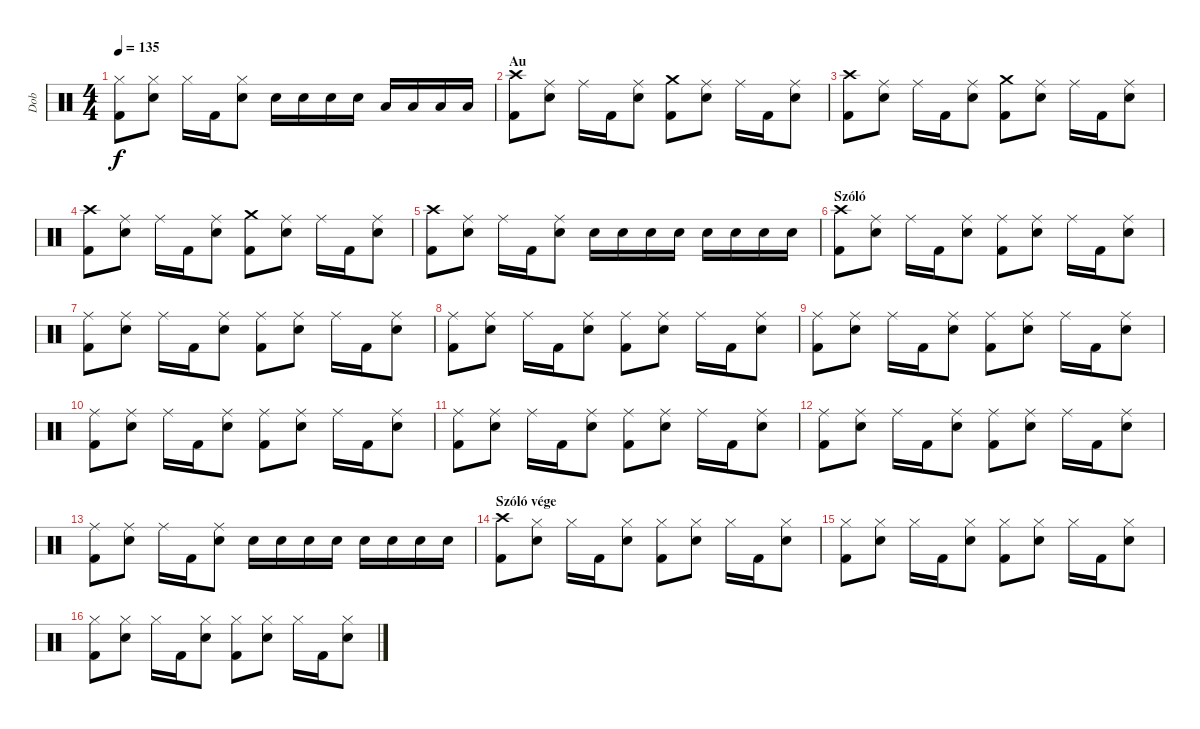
\track ("Dob" "Dob") {instrument percussion}
\staff {score}
\articulation defaults
\ts (4 4)
\tempo 135
\clef neutral
\ks c
("Hi-Hat (closed)" "Kick (hit) 2").8{dy f} ("Hi-Hat (closed)" "Snare (hit) 2").8 "Hi-Hat (closed)".16 "Kick (hit) 2".16 ("Hi-Hat (closed)" "Snare (hit) 2").8 "Snare (hit) 2".16 "Snare (hit) 2".16 "Snare (hit) 2".16 "Snare (hit) 2".16 "Low Tom (hit)".16 "Low Tom (hit)".16 "Low Tom (hit)".16 "Low Tom (hit)".16 |
\section ("" "Au")
("Crash high (hit)" "Kick (hit) 2").8 ("Ride (middle)" "Snare (hit) 2").8 "Ride (middle)".16 "Kick (hit) 2".16 ("Ride (middle)" "Snare (hit) 2").8 ("Crash medium (hit)" "Kick (hit) 2").8 ("Ride (middle)" "Snare (hit) 2").8 "Ride (middle)".16 "Kick (hit) 2".16 ("Ride (middle)" "Snare (hit) 2").8 |
("Crash high (hit)" "Kick (hit) 2").8 ("Ride (middle)" "Snare (hit) 2").8 "Ride (middle)".16 "Kick (hit) 2".16 ("Ride (middle)" "Snare (hit) 2").8 ("Crash medium (hit)" "Kick (hit) 2").8 ("Ride (middle)" "Snare (hit) 2").8 "Ride (middle)".16 "Kick (hit) 2".16 ("Ride (middle)" "Snare (hit) 2").8 |
("Crash high (hit)" "Kick (hit) 2").8 ("Ride (middle)" "Snare (hit) 2").8 "Ride (middle)".16 "Kick (hit) 2".16 ("Ride (middle)" "Snare (hit) 2").8 ("Crash medium (hit)" "Kick (hit) 2").8 ("Ride (middle)" "Snare (hit) 2").8 "Ride (middle)".16 "Kick (hit) 2".16 ("Ride (middle)" "Snare (hit) 2").8 |
("Crash high (hit)" "Kick (hit) 2").8 ("Ride (middle)" "Snare (hit) 2").8 "Ride (middle)".16 "Kick (hit) 2".16 ("Ride (middle)" "Snare (hit) 2").8 "Snare (hit) 2".16 "Snare (hit) 2".16 "Snare (hit) 2".16 "Snare (hit) 2".16 "Snare (hit) 2".16 "Snare (hit) 2".16 "Snare (hit) 2".16 "Snare (hit) 2".16 |
\section ("" "Szóló")
("Crash high (hit)" "Kick (hit) 2").8 ("Ride (middle)" "Snare (hit) 2").8 "Ride (middle)".16 "Kick (hit) 2".16 ("Ride (middle)" "Snare (hit) 2").8 ("Ride (middle)" "Kick (hit) 2").8 ("Ride (middle)" "Snare (hit) 2").8 "Ride (middle)".16 "Kick (hit) 2".16 ("Ride (middle)" "Snare (hit) 2").8 |
("Ride (middle)" "Kick (hit) 2").8 ("Ride (middle)" "Snare (hit) 2").8 "Ride (middle)".16 "Kick (hit) 2".16 ("Ride (middle)" "Snare (hit) 2").8 ("Ride (middle)" "Kick (hit) 2").8 ("Ride (middle)" "Snare (hit) 2").8 "Ride (middle)".16 "Kick (hit) 2".16 ("Ride (middle)" "Snare (hit) 2").8 |
("Ride (middle)" "Kick (hit) 2").8 ("Ride (middle)" "Snare (hit) 2").8 "Ride (middle)".16 "Kick (hit) 2".16 ("Ride (middle)" "Snare (hit) 2").8 ("Ride (middle)" "Kick (hit) 2").8 ("Ride (middle)" "Snare (hit) 2").8 "Ride (middle)".16 "Kick (hit) 2".16 ("Ride (middle)" "Snare (hit) 2").8 |
("Ride (middle)" "Kick (hit) 2").8 ("Ride (middle)" "Snare (hit) 2").8 "Ride (middle)".16 "Kick (hit) 2".16 ("Ride (middle)" "Snare (hit) 2").8 ("Ride (middle)" "Kick (hit) 2").8 ("Ride (middle)" "Snare (hit) 2").8 "Ride (middle)".16 "Kick (hit) 2".16 ("Ride (middle)" "Snare (hit) 2").8 |
("Ride (middle)" "Kick (hit) 2").8 ("Ride (middle)" "Snare (hit) 2").8 "Ride (middle)".16 "Kick (hit) 2".16 ("Ride (middle)" "Snare (hit) 2").8 ("Ride (middle)" "Kick (hit) 2").8 ("Ride (middle)" "Snare (hit) 2").8 "Ride (middle)".16 "Kick (hit) 2".16 ("Ride (middle)" "Snare (hit) 2").8 |
("Ride (middle)" "Kick (hit) 2").8 ("Ride (middle)" "Snare (hit) 2").8 "Ride (middle)".16 "Kick (hit) 2".16 ("Ride (middle)" "Snare (hit) 2").8 ("Ride (middle)" "Kick (hit) 2").8 ("Ride (middle)" "Snare (hit) 2").8 "Ride (middle)".16 "Kick (hit) 2".16 ("Ride (middle)" "Snare (hit) 2").8 |
("Ride (middle)" "Kick (hit) 2").8 ("Ride (middle)" "Snare (hit) 2").8 "Ride (middle)".16 "Kick (hit) 2".16 ("Ride (middle)" "Snare (hit) 2").8 ("Ride (middle)" "Kick (hit) 2").8 ("Ride (middle)" "Snare (hit) 2").8 "Ride (middle)".16 "Kick (hit) 2".16 ("Ride (middle)" "Snare (hit) 2").8 |
("Ride (middle)" "Kick (hit) 2").8 ("Ride (middle)" "Snare (hit) 2").8 "Ride (middle)".16 "Kick (hit) 2".16 ("Ride (middle)" "Snare (hit) 2").8 "Snare (hit) 2".16 "Snare (hit) 2".16 "Snare (hit) 2".16 "Snare (hit) 2".16 "Snare (hit) 2".16 "Snare (hit) 2".16 "Snare (hit) 2".16 "Snare (hit) 2".16 |
\section ("" "Szóló vége")
("Crash high (hit)" "Kick (hit) 2").8 ("Hi-Hat (closed)" "Snare (hit) 2").8 "Hi-Hat (closed)".16 "Kick (hit) 2".16 ("Hi-Hat (closed)" "Snare (hit) 2").8 ("Hi-Hat (closed)" "Kick (hit) 2").8 ("Hi-Hat (closed)" "Snare (hit) 2").8 "Hi-Hat (closed)".16 "Kick (hit) 2".16 ("Hi-Hat (closed)" "Snare (hit) 2").8 |
("Hi-Hat (closed)" "Kick (hit) 2").8 ("Hi-Hat (closed)" "Snare (hit) 2").8 "Hi-Hat (closed)".16 "Kick (hit) 2".16 ("Hi-Hat (closed)" "Snare (hit) 2").8 ("Hi-Hat (closed)" "Kick (hit) 2").8 ("Hi-Hat (closed)" "Snare (hit) 2").8 "Hi-Hat (closed)".16 "Kick (hit) 2".16 ("Hi-Hat (closed)" "Snare (hit) 2").8 |
("Hi-Hat (closed)" "Kick (hit) 2").8 ("Hi-Hat (closed)" "Snare (hit) 2").8 "Hi-Hat (closed)".16 "Kick (hit) 2".16 ("Hi-Hat (closed)" "Snare (hit) 2").8 ("Hi-Hat (closed)" "Kick (hit) 2").8 ("Hi-Hat (closed)" "Snare (hit) 2").8 "Hi-Hat (closed)".16 "Kick (hit) 2".16 ("Hi-Hat (closed)" "Snare (hit) 2").8
